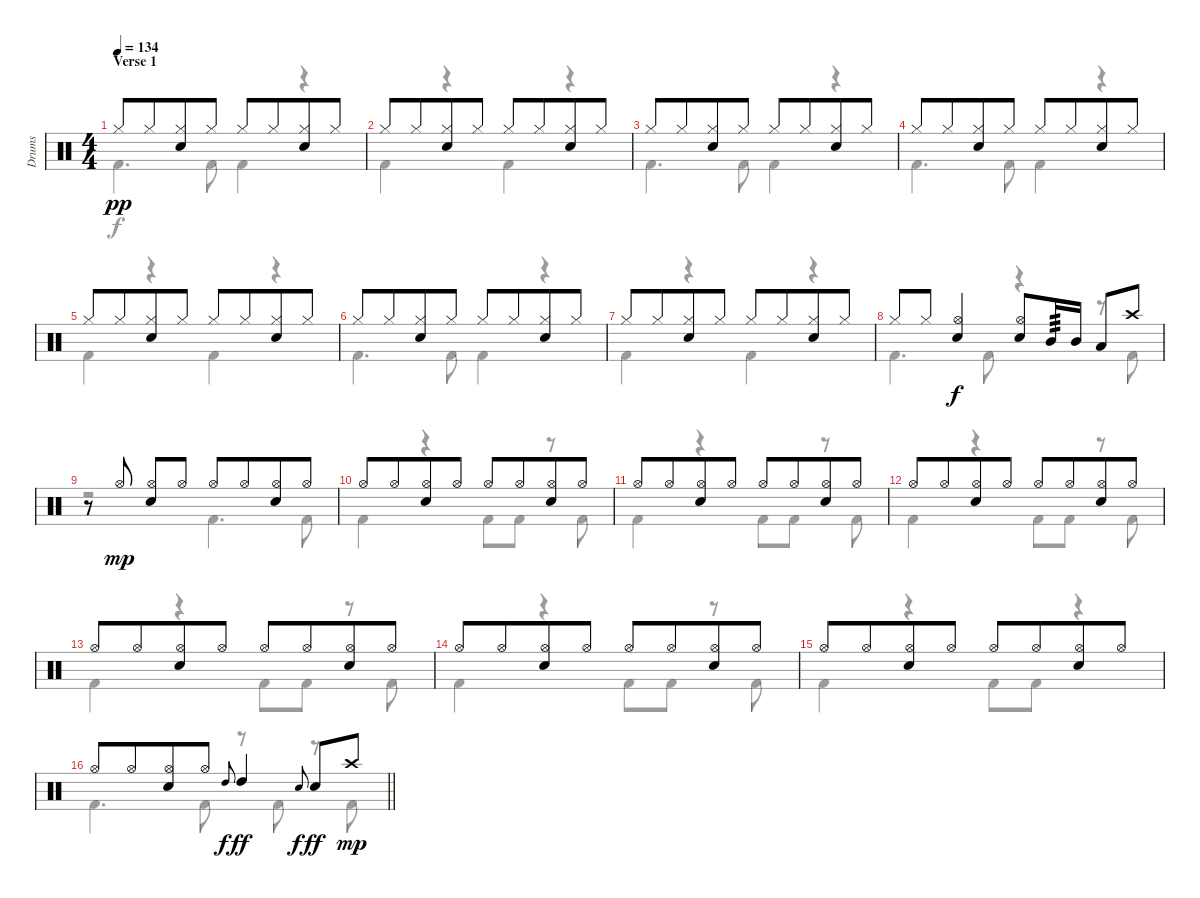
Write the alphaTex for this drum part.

\track ("Drums" "Drums") {instrument percussion}
\staff {score}
\articulation defaults
\voice
\ts (4 4)
\section ("" "Verse 1")
\tempo 134
\clef neutral
\ks c "Hi-Hat (closed)".8{dy pp} "Hi-Hat (closed)".8{beam merge}
("Hi-Hat (closed)" "Electric Snare (hit)").8 "Hi-Hat (closed)".8 "Hi-Hat (closed)".8 "Hi-Hat (closed)".8{beam merge} ("Hi-Hat (closed)" "Electric Snare (hit)").8 "Hi-Hat (closed)".8 |
"Hi-Hat (closed)".8 "Hi-Hat (closed)".8{beam merge} ("Hi-Hat (closed)" "Electric Snare (hit)").8 "Hi-Hat (closed)".8 "Hi-Hat (closed)".8 "Hi-Hat (closed)".8{beam merge} ("Hi-Hat (closed)" "Electric Snare (hit)").8 "Hi-Hat (closed)".8 |
"Hi-Hat (closed)".8 "Hi-Hat (closed)".8{beam merge} ("Hi-Hat (closed)" "Electric Snare (hit)").8 "Hi-Hat (closed)".8 "Hi-Hat (closed)".8 "Hi-Hat (closed)".8{beam merge} ("Hi-Hat (closed)" "Electric Snare (hit)").8 "Hi-Hat (closed)".8 |
"Hi-Hat (closed)".8 "Hi-Hat (closed)".8{beam merge} ("Hi-Hat (closed)" "Electric Snare (hit)").8 "Hi-Hat (closed)".8 "Hi-Hat (closed)".8 "Hi-Hat (closed)".8{beam merge} ("Hi-Hat (closed)" "Electric Snare (hit)").8 "Hi-Hat (closed)".8 |
"Hi-Hat (closed)".8 "Hi-Hat (closed)".8{beam merge} ("Hi-Hat (closed)" "Electric Snare (hit)").8 "Hi-Hat (closed)".8 "Hi-Hat (closed)".8 "Hi-Hat (closed)".8{beam merge} ("Hi-Hat (closed)" "Electric Snare (hit)").8 "Hi-Hat (closed)".8 |
"Hi-Hat (closed)".8 "Hi-Hat (closed)".8{beam merge} ("Hi-Hat (closed)" "Electric Snare (hit)").8 "Hi-Hat (closed)".8 "Hi-Hat (closed)".8 "Hi-Hat (closed)".8{beam merge} ("Hi-Hat (closed)" "Electric Snare (hit)").8 "Hi-Hat (closed)".8 |
"Hi-Hat (closed)".8 "Hi-Hat (closed)".8{beam merge} ("Hi-Hat (closed)" "Electric Snare (hit)").8 "Hi-Hat (closed)".8 "Hi-Hat (closed)".8 "Hi-Hat (closed)".8{beam merge} ("Hi-Hat (closed)" "Electric Snare (hit)").8 "Hi-Hat (closed)".8 |
"Hi-Hat (closed)".8 "Hi-Hat (closed)".8 ("Hi-Hat (open)" "Electric Snare (hit)").4{dy f} ("Electric Snare (hit)" "Hi-Hat (open)").8 "Mid Tom (hit)".16{tp 3} "Mid Tom (hit)".16 "Low Tom (hit)".8 "Crash high (hit)".8 |
r.8 "Hi-Hat (open)".8{dy mp} ("Hi-Hat (open)" "Electric Snare (hit)").8 "Hi-Hat (open)".8 "Hi-Hat (open)".8 "Hi-Hat (open)".8{beam merge} ("Hi-Hat (open)" "Electric Snare (hit)").8 "Hi-Hat (open)".8 |
"Hi-Hat (open)".8 "Hi-Hat (open)".8{beam merge} ("Hi-Hat (open)" "Electric Snare (hit)").8 "Hi-Hat (open)".8 "Hi-Hat (open)".8 "Hi-Hat (open)".8{beam merge} ("Hi-Hat (open)" "Electric Snare (hit)").8 "Hi-Hat (open)".8 |
"Hi-Hat (open)".8 "Hi-Hat (open)".8{beam merge} ("Hi-Hat (open)" "Electric Snare (hit)").8 "Hi-Hat (open)".8 "Hi-Hat (open)".8 "Hi-Hat (open)".8{beam merge} ("Hi-Hat (open)" "Electric Snare (hit)").8 "Hi-Hat (open)".8 |
"Hi-Hat (open)".8 "Hi-Hat (open)".8{beam merge} ("Hi-Hat (open)" "Electric Snare (hit)").8 "Hi-Hat (open)".8 "Hi-Hat (open)".8 "Hi-Hat (open)".8{beam merge} ("Hi-Hat (open)" "Electric Snare (hit)").8 "Hi-Hat (open)".8 |
"Hi-Hat (open)".8 "Hi-Hat (open)".8{beam merge} ("Hi-Hat (open)" "Electric Snare (hit)").8 "Hi-Hat (open)".8 "Hi-Hat (open)".8 "Hi-Hat (open)".8{beam merge} ("Hi-Hat (open)" "Electric Snare (hit)").8 "Hi-Hat (open)".8 |
"Hi-Hat (open)".8 "Hi-Hat (open)".8{beam merge} ("Hi-Hat (open)" "Electric Snare (hit)").8 "Hi-Hat (open)".8 "Hi-Hat (open)".8 "Hi-Hat (open)".8{beam merge} ("Hi-Hat (open)" "Electric Snare (hit)").8 "Hi-Hat (open)".8 |
"Hi-Hat (open)".8 "Hi-Hat (open)".8{beam merge} ("Hi-Hat (open)" "Electric Snare (hit)").8 "Hi-Hat (open)".8 "Hi-Hat (open)".8 "Hi-Hat (open)".8{beam merge} ("Hi-Hat (open)" "Electric Snare (hit)").8 "Hi-Hat (open)".8 |
\barLineRight lightlight "Hi-Hat (open)".8 "Hi-Hat (open)".8{beam merge}
("Hi-Hat (open)" "Electric Snare (hit)").8 "Hi-Hat (open)".8 "High Tom (hit)".8{gr onbeat dy f} "High Tom (hit)".4{dy ff} "Electric Snare (hit)".8{gr onbeat dy f} "Electric Snare (hit)".8{dy ff} "Crash high (hit)".8{dy mp}
\voice
\clef neutral
\ottava regular
\simile none
\ks c "Kick (hit) 2".4{d dy f} "Kick (hit) 2".8 "Kick (hit) 2".4
r.4 |
"Kick (hit) 2".4 r.4 "Kick (hit) 2".4 r.4 |
"Kick (hit) 2".4{d} "Kick (hit) 2".8 "Kick (hit) 2".4 r.4 |
"Kick (hit) 2".4{d} "Kick (hit) 2".8 "Kick (hit) 2".4 r.4 |
"Kick (hit) 2".4 r.4 "Kick (hit) 2".4 r.4 |
"Kick (hit) 2".4{d} "Kick (hit) 2".8 "Kick (hit) 2".4 r.4 |
"Kick (hit) 2".4 r.4 "Kick (hit) 2".4 r.4 |
"Kick (hit) 2".4{d} "Kick (hit) 2".8 r.4 r.8 "Kick (hit) 2".8 |
r.2 "Kick (hit) 2".4{d} "Kick (hit) 2".8 |
"Kick (hit) 2".4 r.4 "Kick (hit) 2".8 "Kick (hit) 2".8 r.8 "Kick (hit) 2".8 |
"Kick (hit) 2".4 r.4 "Kick (hit) 2".8 "Kick (hit) 2".8 r.8 "Kick (hit) 2".8 |
"Kick (hit) 2".4 r.4 "Kick (hit) 2".8 "Kick (hit) 2".8 r.8 "Kick (hit) 2".8 |
"Kick (hit) 2".4 r.4 "Kick (hit) 2".8 "Kick (hit) 2".8 r.8 "Kick (hit) 2".8 |
"Kick (hit) 2".4 r.4 "Kick (hit) 2".8 "Kick (hit) 2".8 r.8 "Kick (hit) 2".8 |
"Kick (hit) 2".4 r.4 "Kick (hit) 2".8 "Kick (hit) 2".8 r.4 |
\barLineRight lightlight "Kick (hit) 2".4{d} "Kick (hit) 2".8
r.8 "Kick (hit) 2".8 r.8 "Kick (hit) 2".8
